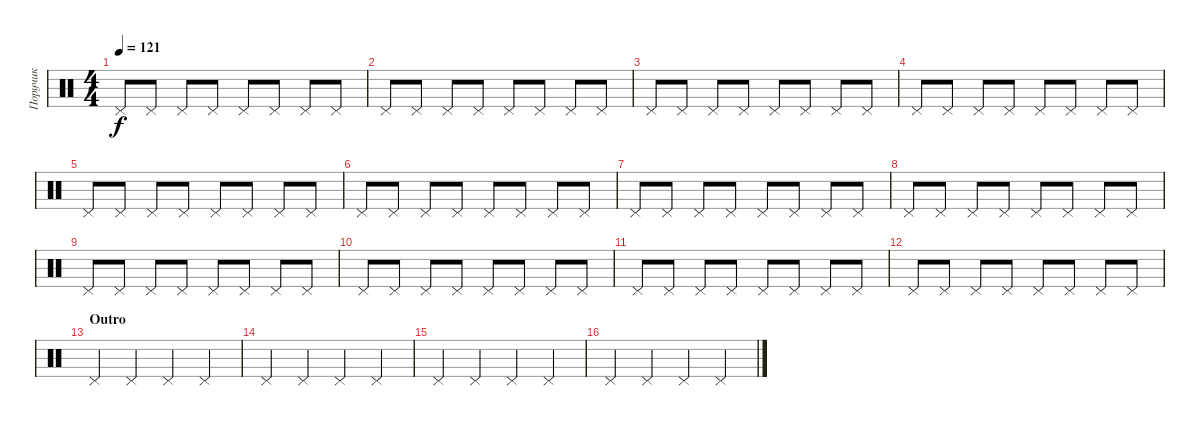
\track ("Поручик" "Поручик") {instrument percussion}
\staff {score}
\articulation defaults
\ts (4 4)
\tempo 121
\clef neutral
\ks c "Pedal Hi-Hat (hit)".8{dy f} "Pedal Hi-Hat (hit)".8 "Pedal Hi-Hat (hit)".8 "Pedal Hi-Hat (hit)".8 "Pedal Hi-Hat (hit)".8 "Pedal Hi-Hat (hit)".8 "Pedal Hi-Hat (hit)".8 "Pedal Hi-Hat (hit)".8
|
"Pedal Hi-Hat (hit)".8 "Pedal Hi-Hat (hit)".8 "Pedal Hi-Hat (hit)".8 "Pedal Hi-Hat (hit)".8 "Pedal Hi-Hat (hit)".8 "Pedal Hi-Hat (hit)".8 "Pedal Hi-Hat (hit)".8 "Pedal Hi-Hat (hit)".8 |
"Pedal Hi-Hat (hit)".8 "Pedal Hi-Hat (hit)".8 "Pedal Hi-Hat (hit)".8 "Pedal Hi-Hat (hit)".8 "Pedal Hi-Hat (hit)".8 "Pedal Hi-Hat (hit)".8 "Pedal Hi-Hat (hit)".8 "Pedal Hi-Hat (hit)".8 |
"Pedal Hi-Hat (hit)".8 "Pedal Hi-Hat (hit)".8 "Pedal Hi-Hat (hit)".8 "Pedal Hi-Hat (hit)".8 "Pedal Hi-Hat (hit)".8 "Pedal Hi-Hat (hit)".8 "Pedal Hi-Hat (hit)".8 "Pedal Hi-Hat (hit)".8 |
"Pedal Hi-Hat (hit)".8 "Pedal Hi-Hat (hit)".8 "Pedal Hi-Hat (hit)".8 "Pedal Hi-Hat (hit)".8 "Pedal Hi-Hat (hit)".8 "Pedal Hi-Hat (hit)".8 "Pedal Hi-Hat (hit)".8 "Pedal Hi-Hat (hit)".8 |
"Pedal Hi-Hat (hit)".8 "Pedal Hi-Hat (hit)".8 "Pedal Hi-Hat (hit)".8 "Pedal Hi-Hat (hit)".8 "Pedal Hi-Hat (hit)".8 "Pedal Hi-Hat (hit)".8 "Pedal Hi-Hat (hit)".8 "Pedal Hi-Hat (hit)".8 |
"Pedal Hi-Hat (hit)".8 "Pedal Hi-Hat (hit)".8 "Pedal Hi-Hat (hit)".8 "Pedal Hi-Hat (hit)".8 "Pedal Hi-Hat (hit)".8 "Pedal Hi-Hat (hit)".8 "Pedal Hi-Hat (hit)".8 "Pedal Hi-Hat (hit)".8 |
"Pedal Hi-Hat (hit)".8 "Pedal Hi-Hat (hit)".8 "Pedal Hi-Hat (hit)".8 "Pedal Hi-Hat (hit)".8 "Pedal Hi-Hat (hit)".8 "Pedal Hi-Hat (hit)".8 "Pedal Hi-Hat (hit)".8 "Pedal Hi-Hat (hit)".8 |
"Pedal Hi-Hat (hit)".8 "Pedal Hi-Hat (hit)".8 "Pedal Hi-Hat (hit)".8 "Pedal Hi-Hat (hit)".8 "Pedal Hi-Hat (hit)".8 "Pedal Hi-Hat (hit)".8 "Pedal Hi-Hat (hit)".8 "Pedal Hi-Hat (hit)".8 |
"Pedal Hi-Hat (hit)".8 "Pedal Hi-Hat (hit)".8 "Pedal Hi-Hat (hit)".8 "Pedal Hi-Hat (hit)".8 "Pedal Hi-Hat (hit)".8 "Pedal Hi-Hat (hit)".8 "Pedal Hi-Hat (hit)".8 "Pedal Hi-Hat (hit)".8 |
"Pedal Hi-Hat (hit)".8 "Pedal Hi-Hat (hit)".8 "Pedal Hi-Hat (hit)".8 "Pedal Hi-Hat (hit)".8 "Pedal Hi-Hat (hit)".8 "Pedal Hi-Hat (hit)".8 "Pedal Hi-Hat (hit)".8 "Pedal Hi-Hat (hit)".8 |
"Pedal Hi-Hat (hit)".8 "Pedal Hi-Hat (hit)".8 "Pedal Hi-Hat (hit)".8 "Pedal Hi-Hat (hit)".8 "Pedal Hi-Hat (hit)".8 "Pedal Hi-Hat (hit)".8 "Pedal Hi-Hat (hit)".8 "Pedal Hi-Hat (hit)".8 |
\section ("" "Outro")
"Pedal Hi-Hat (hit)".4{volume 8} "Pedal Hi-Hat (hit)".4 "Pedal Hi-Hat (hit)".4 "Pedal Hi-Hat (hit)".4 |
"Pedal Hi-Hat (hit)".4 "Pedal Hi-Hat (hit)".4 "Pedal Hi-Hat (hit)".4 "Pedal Hi-Hat (hit)".4 |
"Pedal Hi-Hat (hit)".4 "Pedal Hi-Hat (hit)".4 "Pedal Hi-Hat (hit)".4 "Pedal Hi-Hat (hit)".4 |
"Pedal Hi-Hat (hit)".4 "Pedal Hi-Hat (hit)".4 "Pedal Hi-Hat (hit)".4 "Pedal Hi-Hat (hit)".4
